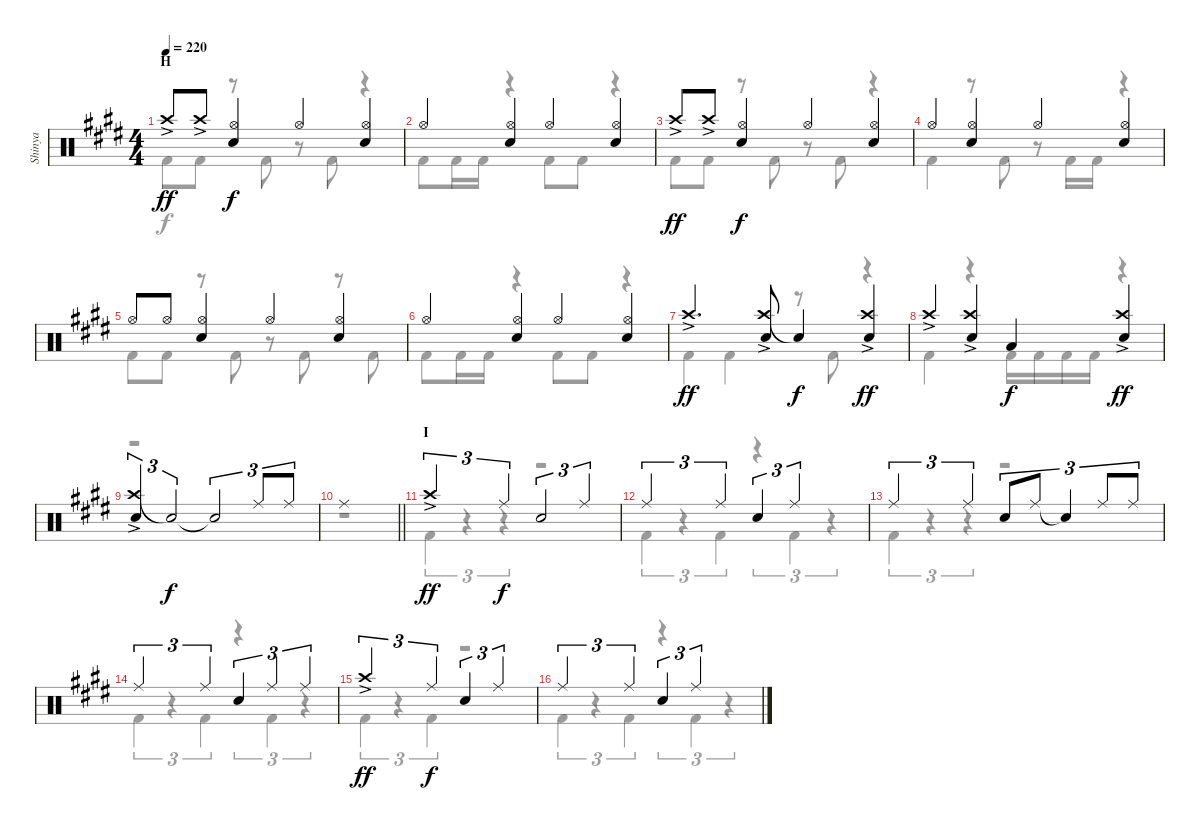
\track ("Shinya" "Shinya") {instrument percussion}
\staff {score}
\articulation defaults
\voice
\ts (4 4)
\section ("" "H")
\tempo 220
\clef neutral
\ks c#minor "Crash high (hit)"{ac}.8{dy ff} "Crash high (hit)"{ac}.8
("Hi-Hat (open)" "Snare (hit) 2").4{dy f} "Hi-Hat (open)".4 ("Hi-Hat (open)" "Snare (hit) 2").4 |
"Hi-Hat (open)".4 ("Hi-Hat (open)" "Snare (hit) 2").4 "Hi-Hat (open)".4 ("Hi-Hat (open)" "Snare (hit) 2").4 |
"Crash high (hit)"{ac}.8{dy ff} "Crash high (hit)"{ac}.8 ("Hi-Hat (open)" "Snare (hit) 2").4{dy f} "Hi-Hat (open)".4 ("Hi-Hat (open)" "Snare (hit) 2").4 |
"Hi-Hat (open)".4 ("Hi-Hat (open)" "Snare (hit) 2").4 "Hi-Hat (open)".4 ("Hi-Hat (open)" "Snare (hit) 2").4 |
"Hi-Hat (open)".8 "Hi-Hat (open)".8 ("Hi-Hat (open)" "Snare (hit) 2").4 "Hi-Hat (open)".4 ("Hi-Hat (open)" "Snare (hit) 2").4 |
"Hi-Hat (open)".4 ("Hi-Hat (open)" "Snare (hit) 2").4 "Hi-Hat (open)".4 ("Hi-Hat (open)" "Snare (hit) 2").4 |
"Crash high (hit)"{ac}.4{d dy ff} ("Crash high (hit)"{ac} "Snare (hit) 2").8 "Snare (hit)"{t}.4{dy f} ("Crash high (hit)"{ac} "Snare (hit) 2").4{dy ff} |
"Crash high (hit)"{ac}.4 ("Crash high (hit)"{ac} "Snare (hit) 2").4 "Low Tom (hit)".4{dy f} ("Crash high (hit)"{ac} "Snare (hit) 2").4{dy ff} |
("Crash high (hit)"{ac} "Snare (hit) 2").4{tu (3 2)} "Snare (hit)"{t}.2{tu (3 2) dy f} "Snare (hit)"{t}.2{tu (3 2)} "Ride (middle)".8{tu (3 2)} "Ride (middle)".8{tu (3 2)} |
\barLineRight lightlight "Ride (middle)".1
|
\section ("" "I")
"Crash high (hit)"{ac}.2{tu (3 2) dy ff} "Ride (middle)".4{tu (3 2) dy f} "Snare (hit) 2".2{tu (3 2)} "Ride (middle)".4{tu (3 2)} |
"Ride (middle)".2{tu (3 2)} "Ride (middle)".4{tu (3 2)} "Snare (hit) 2".4{tu (3 2)} "Ride (middle)".2{tu (3 2)} |
"Ride (middle)".2{tu (3 2)} "Ride (middle)".4{tu (3 2)} "Snare (hit) 2".8{tu (3 2)} "Ride (middle)".8{tu (3 2)} "Snare (hit)"{t}.4{tu (3 2)} "Ride (middle)".8{tu (3 2)} "Ride (middle)".8{tu (3 2)} |
"Ride (middle)".2{tu (3 2)} "Ride (middle)".4{tu (3 2)} "Snare (hit) 2".4{tu (3 2)} "Ride (middle)".4{tu (3 2)} "Ride (middle)".4{tu (3 2)} |
"Crash high (hit)"{ac}.2{tu (3 2) dy ff} "Ride (middle)".4{tu (3 2) dy f} "Snare (hit) 2".4{tu (3 2)} "Ride (middle)".2{tu (3 2)} |
"Ride (middle)".2{tu (3 2)} "Ride (middle)".4{tu (3 2)} "Snare (hit) 2".4{tu (3 2)} "Ride (middle)".2{tu (3 2)}
\voice
\clef neutral
\ottava regular
\simile none
\ks c#minor "Kick (hit) 2".8{dy f} "Kick (hit) 2".8
r.8 "Kick (hit) 2".8 r.8 "Kick (hit) 2".8 r.4 |
"Kick (hit) 2".8 "Kick (hit) 2".16 "Kick (hit) 2".16 r.4 "Kick (hit) 2".8 "Kick (hit) 2".8 r.4 |
"Kick (hit) 2".8 "Kick (hit) 2".8 r.8 "Kick (hit) 2".8 r.8 "Kick (hit) 2".8 r.4 |
"Kick (hit) 2".4 r.8 "Kick (hit) 2".8 r.8 "Kick (hit) 2".16 "Kick (hit) 2".16 r.4 |
"Kick (hit) 2".8 "Kick (hit) 2".8 r.8 "Kick (hit) 2".8 r.8 "Kick (hit) 2".8 r.8 "Kick (hit) 2".8 |
"Kick (hit) 2".8 "Kick (hit) 2".16 "Kick (hit) 2".16 r.4 "Kick (hit) 2".8 "Kick (hit) 2".8 r.4 |
"Kick (hit) 2".4 "Kick (hit) 2".4 r.8 "Kick (hit) 2".8 r.4 |
"Kick (hit) 2".4 r.4 "Kick (hit) 2".16 "Kick (hit) 2".16 "Kick (hit) 2".16 "Kick (hit) 2".16 r.4 |
r.1 |
\barLineRight lightlight
r.1 |
"Kick (hit) 2".4{tu (3 2)} r.4{tu (3 2)} r.4{tu (3 2)} r.2 |
"Kick (hit) 2".4{tu (3 2)} r.4{tu (3 2)} "Kick (hit) 2".4{tu (3 2)} r.4{tu (3 2)} "Kick (hit) 2".4{tu (3 2)} r.4{tu (3 2)} |
"Kick (hit) 2".4{tu (3 2)} r.4{tu (3 2)} r.4{tu (3 2)} r.2 |
"Kick (hit) 2".4{tu (3 2)} r.4{tu (3 2)} "Kick (hit) 2".4{tu (3 2)} r.4{tu (3 2)} "Kick (hit) 2".4{tu (3 2)} r.4{tu (3 2)} |
"Kick (hit) 2".4{tu (3 2)} r.4{tu (3 2)} "Kick (hit) 2".4{tu (3 2)} r.2 |
"Kick (hit) 2".4{tu (3 2)} r.4{tu (3 2)} "Kick (hit) 2".4{tu (3 2)} r.4{tu (3 2)} "Kick (hit) 2".4{tu (3 2)} r.4{tu (3 2)}
